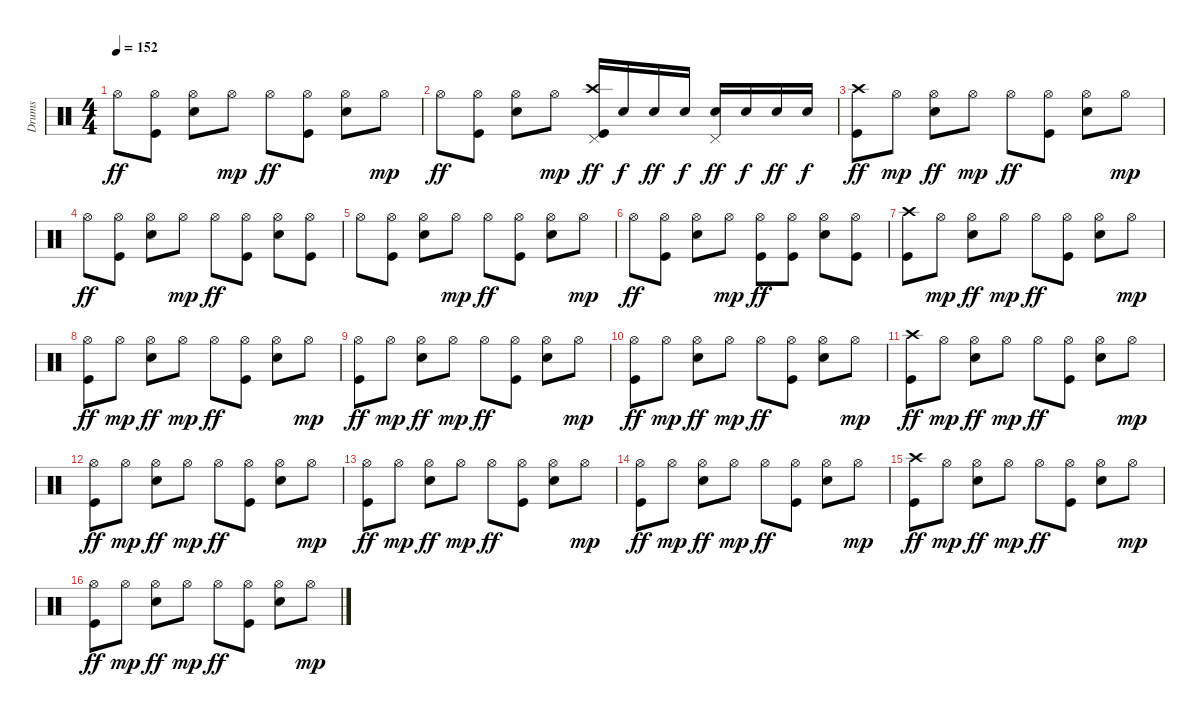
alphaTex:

\track ("Drums" "Drums") {instrument percussion}
\staff {score}
\articulation defaults
\ts (4 4)
\tempo 152
\clef neutral
\ks c "Hi-Hat (open)".8{dy ff}
("Hi-Hat (open)" "Kick (hit)").8 ("Hi-Hat (open)" "Snare (hit) 2").8 "Hi-Hat (open)".8{dy mp} "Hi-Hat (open)".8{dy ff} ("Hi-Hat (open)" "Kick (hit)").8 ("Hi-Hat (open)" "Snare (hit) 2").8 "Hi-Hat (open)".8{dy mp} |
"Hi-Hat (open)".8{dy ff} ("Hi-Hat (open)" "Kick (hit)").8 ("Hi-Hat (open)" "Snare (hit) 2").8 "Hi-Hat (open)".8{dy mp} ("Crash high (hit)" "Pedal Hi-Hat (hit)" "Kick (hit)").16{dy ff} "Snare (hit) 2".16{dy f} "Snare (hit) 2".16{dy ff} "Snare (hit) 2".16{dy f} ("Pedal Hi-Hat (hit)" "Snare (hit) 2").16{dy ff} "Snare (hit) 2".16{dy f} "Snare (hit) 2".16{dy ff} "Snare (hit) 2".16{dy f} |
("Crash high (hit)" "Kick (hit)").8{dy ff} "Hi-Hat (open)".8{dy mp} ("Hi-Hat (open)" "Snare (hit) 2").8{dy ff} "Hi-Hat (open)".8{dy mp} "Hi-Hat (open)".8{dy ff} ("Hi-Hat (open)" "Kick (hit)").8 ("Hi-Hat (open)" "Snare (hit) 2").8 "Hi-Hat (open)".8{dy mp} |
"Hi-Hat (open)".8{dy ff} ("Hi-Hat (open)" "Kick (hit)").8 ("Hi-Hat (open)" "Snare (hit) 2").8 "Hi-Hat (open)".8{dy mp} "Hi-Hat (open)".8{dy ff} ("Hi-Hat (open)" "Kick (hit)").8 ("Hi-Hat (open)" "Snare (hit) 2").8 ("Hi-Hat (open)" "Kick (hit)").8 |
"Hi-Hat (open)".8 ("Hi-Hat (open)" "Kick (hit)").8 ("Hi-Hat (open)" "Snare (hit) 2").8 "Hi-Hat (open)".8{dy mp} "Hi-Hat (open)".8{dy ff} ("Hi-Hat (open)" "Kick (hit)").8 ("Hi-Hat (open)" "Snare (hit) 2").8 "Hi-Hat (open)".8{dy mp} |
"Hi-Hat (open)".8{dy ff} ("Hi-Hat (open)" "Kick (hit)").8 ("Hi-Hat (open)" "Snare (hit) 2").8 "Hi-Hat (open)".8{dy mp} ("Hi-Hat (open)" "Kick (hit)").8{dy ff} ("Hi-Hat (open)" "Kick (hit)").8 ("Hi-Hat (open)" "Snare (hit) 2").8 ("Hi-Hat (open)" "Kick (hit)").8 |
("Crash high (hit)" "Kick (hit)").8 "Hi-Hat (open)".8{dy mp} ("Hi-Hat (open)" "Snare (hit) 2").8{dy ff} "Hi-Hat (open)".8{dy mp} "Hi-Hat (open)".8{dy ff} ("Hi-Hat (open)" "Kick (hit)").8 ("Hi-Hat (open)" "Snare (hit) 2").8 "Hi-Hat (open)".8{dy mp} |
("Hi-Hat (open)" "Kick (hit)").8{dy ff} "Hi-Hat (open)".8{dy mp} ("Hi-Hat (open)" "Snare (hit) 2").8{dy ff} "Hi-Hat (open)".8{dy mp} "Hi-Hat (open)".8{dy ff} ("Hi-Hat (open)" "Kick (hit)").8 ("Hi-Hat (open)" "Snare (hit) 2").8 "Hi-Hat (open)".8{dy mp} |
("Hi-Hat (open)" "Kick (hit)").8{dy ff} "Hi-Hat (open)".8{dy mp} ("Hi-Hat (open)" "Snare (hit) 2").8{dy ff} "Hi-Hat (open)".8{dy mp} "Hi-Hat (open)".8{dy ff} ("Hi-Hat (open)" "Kick (hit)").8 ("Hi-Hat (open)" "Snare (hit) 2").8 "Hi-Hat (open)".8{dy mp} |
("Hi-Hat (open)" "Kick (hit)").8{dy ff} "Hi-Hat (open)".8{dy mp} ("Hi-Hat (open)" "Snare (hit) 2").8{dy ff} "Hi-Hat (open)".8{dy mp} "Hi-Hat (open)".8{dy ff} ("Hi-Hat (open)" "Kick (hit)").8 ("Hi-Hat (open)" "Snare (hit) 2").8 "Hi-Hat (open)".8{dy mp} |
("Crash high (hit)" "Kick (hit)").8{dy ff} "Hi-Hat (open)".8{dy mp} ("Hi-Hat (open)" "Snare (hit) 2").8{dy ff} "Hi-Hat (open)".8{dy mp} "Hi-Hat (open)".8{dy ff} ("Hi-Hat (open)" "Kick (hit)").8 ("Hi-Hat (open)" "Snare (hit) 2").8 "Hi-Hat (open)".8{dy mp} |
("Hi-Hat (open)" "Kick (hit)").8{dy ff} "Hi-Hat (open)".8{dy mp} ("Hi-Hat (open)" "Snare (hit) 2").8{dy ff} "Hi-Hat (open)".8{dy mp} "Hi-Hat (open)".8{dy ff} ("Hi-Hat (open)" "Kick (hit)").8 ("Hi-Hat (open)" "Snare (hit) 2").8 "Hi-Hat (open)".8{dy mp} |
("Hi-Hat (open)" "Kick (hit)").8{dy ff} "Hi-Hat (open)".8{dy mp} ("Hi-Hat (open)" "Snare (hit) 2").8{dy ff} "Hi-Hat (open)".8{dy mp} "Hi-Hat (open)".8{dy ff} ("Hi-Hat (open)" "Kick (hit)").8 ("Hi-Hat (open)" "Snare (hit) 2").8 "Hi-Hat (open)".8{dy mp} |
("Hi-Hat (open)" "Kick (hit)").8{dy ff} "Hi-Hat (open)".8{dy mp} ("Hi-Hat (open)" "Snare (hit) 2").8{dy ff} "Hi-Hat (open)".8{dy mp} "Hi-Hat (open)".8{dy ff} ("Hi-Hat (open)" "Kick (hit)").8 ("Hi-Hat (open)" "Snare (hit) 2").8 "Hi-Hat (open)".8{dy mp} |
("Crash high (hit)" "Kick (hit)").8{dy ff} "Hi-Hat (open)".8{dy mp} ("Hi-Hat (open)" "Snare (hit) 2").8{dy ff} "Hi-Hat (open)".8{dy mp} "Hi-Hat (open)".8{dy ff} ("Hi-Hat (open)" "Kick (hit)").8 ("Hi-Hat (open)" "Snare (hit) 2").8 "Hi-Hat (open)".8{dy mp} |
("Hi-Hat (open)" "Kick (hit)").8{dy ff} "Hi-Hat (open)".8{dy mp} ("Hi-Hat (open)" "Snare (hit) 2").8{dy ff} "Hi-Hat (open)".8{dy mp} "Hi-Hat (open)".8{dy ff} ("Hi-Hat (open)" "Kick (hit)").8 ("Hi-Hat (open)" "Snare (hit) 2").8 "Hi-Hat (open)".8{dy mp}
